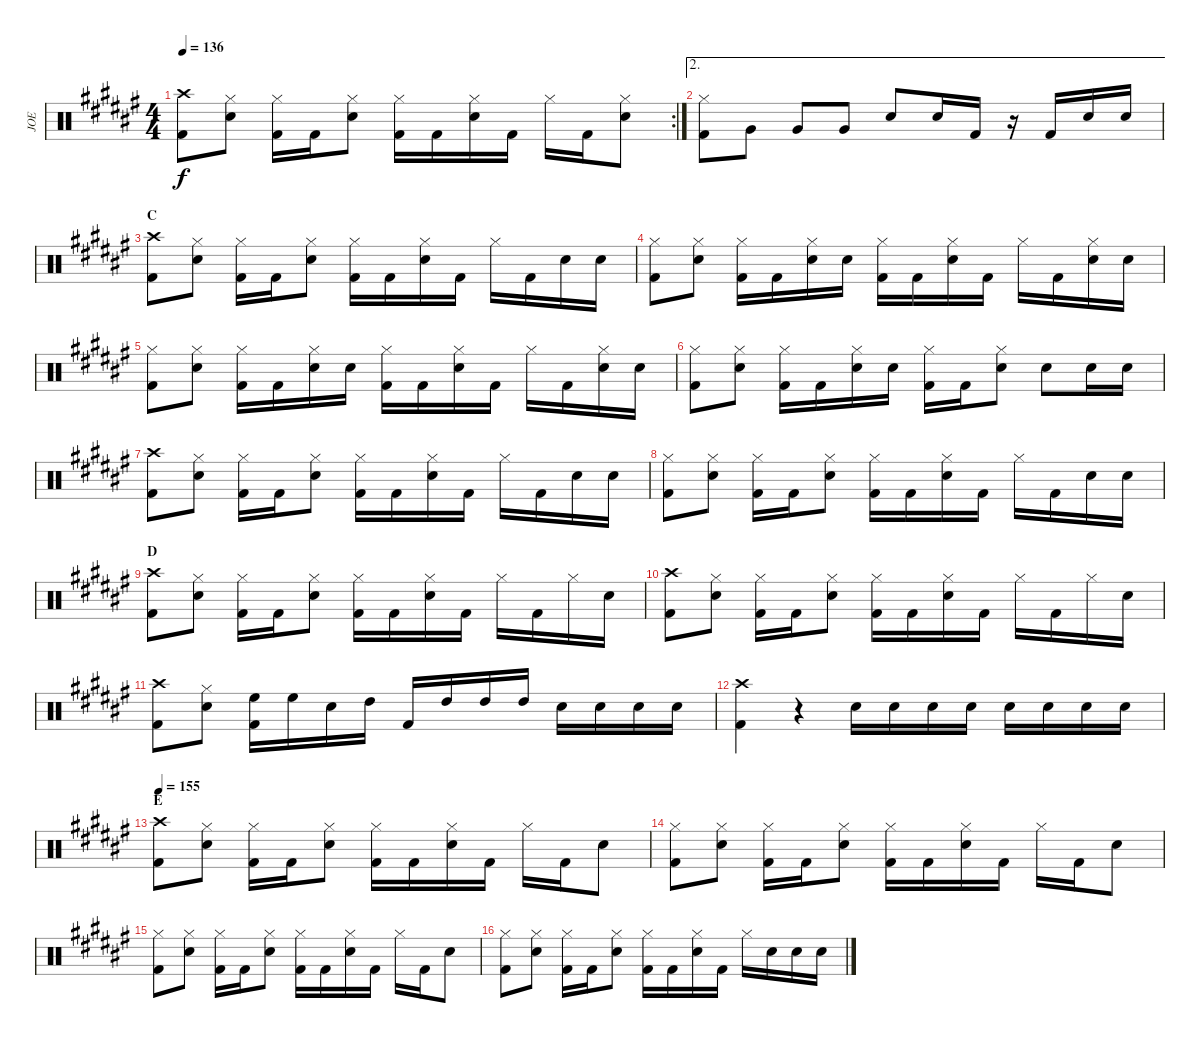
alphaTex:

\track ("JOE" "JOE") {instrument percussion}
\staff {score}
\articulation defaults
\rc 2
\ts (4 4)
\tempo 136
\clef neutral
\ks f#
("Crash high (hit)" "Kick (hit) 2").8{dy f} ("Hi-Hat (closed)" "Snare (hit) 2").8 ("Hi-Hat (closed)" "Kick (hit) 2").16 "Kick (hit) 2".16 ("Hi-Hat (closed)" "Snare (hit) 2").8 ("Hi-Hat (closed)" "Kick (hit) 2").16 "Kick (hit) 2".16 ("Hi-Hat (closed)" "Snare (hit) 2").16 "Kick (hit) 2".16 "Hi-Hat (closed)".16 "Kick (hit) 2".16 ("Hi-Hat (closed)" "Snare (hit) 2").8 |
\ae 2
("Hi-Hat (closed)" "Kick (hit) 2").8 "Very Low Tom (hit)".8 "Very Low Tom (hit)".8 "Very Low Tom (hit)".8 "Snare (hit) 2".8 "Snare (hit) 2".16 "Kick (hit) 2".16 r.16 "Kick (hit) 2".16 "Snare (hit) 2".16 "Snare (hit) 2".16 |
\section ("" "C")
("Crash high (hit)" "Kick (hit) 2").8 ("Hi-Hat (closed)" "Snare (hit) 2").8 ("Hi-Hat (closed)" "Kick (hit) 2").16 "Kick (hit) 2".16 ("Hi-Hat (closed)" "Snare (hit) 2").8 ("Hi-Hat (closed)" "Kick (hit) 2").16 "Kick (hit) 2".16 ("Hi-Hat (closed)" "Snare (hit) 2").16 "Kick (hit) 2".16 "Hi-Hat (closed)".16 "Kick (hit) 2".16 "Snare (hit) 2".16 "Snare (hit) 2".16 |
("Hi-Hat (closed)" "Kick (hit) 2").8 ("Hi-Hat (closed)" "Snare (hit) 2").8 ("Hi-Hat (closed)" "Kick (hit) 2").16 "Kick (hit) 2".16 ("Hi-Hat (closed)" "Snare (hit) 2").16 "Snare (hit) 2".16 ("Hi-Hat (closed)" "Kick (hit) 2").16 "Kick (hit) 2".16 ("Hi-Hat (closed)" "Snare (hit) 2").16 "Kick (hit) 2".16 "Hi-Hat (closed)".16 "Kick (hit) 2".16 ("Hi-Hat (closed)" "Snare (hit) 2").16 "Snare (hit) 2".16 |
("Hi-Hat (closed)" "Kick (hit) 2").8 ("Hi-Hat (closed)" "Snare (hit) 2").8 ("Hi-Hat (closed)" "Kick (hit) 2").16 "Kick (hit) 2".16 ("Hi-Hat (closed)" "Snare (hit) 2").16 "Snare (hit) 2".16 ("Hi-Hat (closed)" "Kick (hit) 2").16 "Kick (hit) 2".16 ("Hi-Hat (closed)" "Snare (hit) 2").16 "Kick (hit) 2".16 "Hi-Hat (closed)".16 "Kick (hit) 2".16 ("Hi-Hat (closed)" "Snare (hit) 2").16 "Snare (hit) 2".16 |
("Hi-Hat (closed)" "Kick (hit) 2").8 ("Hi-Hat (closed)" "Snare (hit) 2").8 ("Hi-Hat (closed)" "Kick (hit) 2").16 "Kick (hit) 2".16 ("Hi-Hat (closed)" "Snare (hit) 2").16 "Snare (hit) 2".16 ("Hi-Hat (closed)" "Kick (hit) 2").16 "Kick (hit) 2".16 ("Hi-Hat (closed)" "Snare (hit) 2").8 "Snare (hit) 2".8 "Snare (hit) 2".16 "Snare (hit) 2".16 |
("Crash high (hit)" "Kick (hit) 2").8 ("Hi-Hat (closed)" "Snare (hit) 2").8 ("Hi-Hat (closed)" "Kick (hit) 2").16 "Kick (hit) 2".16 ("Hi-Hat (closed)" "Snare (hit) 2").8 ("Hi-Hat (closed)" "Kick (hit) 2").16 "Kick (hit) 2".16 ("Hi-Hat (closed)" "Snare (hit) 2").16 "Kick (hit) 2".16 "Hi-Hat (closed)".16 "Kick (hit) 2".16 "Snare (hit) 2".16 "Snare (hit) 2".16 |
("Hi-Hat (closed)" "Kick (hit) 2").8 ("Hi-Hat (closed)" "Snare (hit) 2").8 ("Hi-Hat (closed)" "Kick (hit) 2").16 "Kick (hit) 2".16 ("Hi-Hat (closed)" "Snare (hit) 2").8 ("Hi-Hat (closed)" "Kick (hit) 2").16 "Kick (hit) 2".16 ("Hi-Hat (closed)" "Snare (hit) 2").16 "Kick (hit) 2".16 "Hi-Hat (closed)".16 "Kick (hit) 2".16 "Snare (hit) 2".16 "Snare (hit) 2".16 |
\section ("" "D")
("Crash high (hit)" "Kick (hit) 2").8 ("Hi-Hat (closed)" "Snare (hit) 2").8 ("Hi-Hat (closed)" "Kick (hit) 2").16 "Kick (hit) 2".16 ("Hi-Hat (closed)" "Snare (hit) 2").8 ("Hi-Hat (closed)" "Kick (hit) 2").16 "Kick (hit) 2".16 ("Hi-Hat (closed)" "Snare (hit) 2").16 "Kick (hit) 2".16 "Hi-Hat (closed)".16 "Kick (hit) 2".16 "Hi-Hat (closed)".16 "Snare (hit) 2".16 |
("Crash high (hit)" "Kick (hit) 2").8 ("Hi-Hat (closed)" "Snare (hit) 2").8 ("Hi-Hat (closed)" "Kick (hit) 2").16 "Kick (hit) 2".16 ("Hi-Hat (closed)" "Snare (hit) 2").8 ("Hi-Hat (closed)" "Kick (hit) 2").16 "Kick (hit) 2".16 ("Hi-Hat (closed)" "Snare (hit) 2").16 "Kick (hit) 2".16 "Hi-Hat (closed)".16 "Kick (hit) 2".16 "Hi-Hat (closed)".16 "Snare (hit) 2".16 |
("Crash high (hit)" "Kick (hit) 2").8 ("Hi-Hat (closed)" "Snare (hit) 2").8 ("High Floor Tom (hit)" "Kick (hit) 2").16 "High Floor Tom (hit)".16 "Snare (hit) 2".16 "High Tom (hit)".16 "Kick (hit) 2".16 "High Tom (hit)".16 "High Tom (hit)".16 "High Tom (hit)".16 "Snare (hit) 2".16 "Snare (hit) 2".16 "Snare (hit) 2".16 "Snare (hit) 2".16 |
("Crash high (hit)" "Kick (hit) 2").4 r.4 "Snare (hit) 2".16 "Snare (hit) 2".16 "Snare (hit) 2".16 "Snare (hit) 2".16 "Snare (hit) 2".16 "Snare (hit) 2".16 "Snare (hit) 2".16 "Snare (hit) 2".16 |
\section ("" "E")
\tempo 155
("Crash high (hit)" "Kick (hit) 2").8 ("Hi-Hat (closed)" "Snare (hit) 2").8 ("Hi-Hat (closed)" "Kick (hit) 2").16 "Kick (hit) 2".16 ("Hi-Hat (closed)" "Snare (hit) 2").8 ("Hi-Hat (closed)" "Kick (hit) 2").16 "Kick (hit) 2".16 ("Hi-Hat (closed)" "Snare (hit) 2").16 "Kick (hit) 2".16 "Hi-Hat (closed)".16 "Kick (hit) 2".16 "Snare (hit) 2".8 |
("Hi-Hat (closed)" "Kick (hit) 2").8 ("Hi-Hat (closed)" "Snare (hit) 2").8 ("Hi-Hat (closed)" "Kick (hit) 2").16 "Kick (hit) 2".16 ("Hi-Hat (closed)" "Snare (hit) 2").8 ("Hi-Hat (closed)" "Kick (hit) 2").16 "Kick (hit) 2".16 ("Hi-Hat (closed)" "Snare (hit) 2").16 "Kick (hit) 2".16 "Hi-Hat (closed)".16 "Kick (hit) 2".16 "Snare (hit) 2".8 |
("Hi-Hat (closed)" "Kick (hit) 2").8 ("Hi-Hat (closed)" "Snare (hit) 2").8 ("Hi-Hat (closed)" "Kick (hit) 2").16 "Kick (hit) 2".16 ("Hi-Hat (closed)" "Snare (hit) 2").8 ("Hi-Hat (closed)" "Kick (hit) 2").16 "Kick (hit) 2".16 ("Hi-Hat (closed)" "Snare (hit) 2").16 "Kick (hit) 2".16 "Hi-Hat (closed)".16 "Kick (hit) 2".16 "Snare (hit) 2".8 |
("Hi-Hat (closed)" "Kick (hit) 2").8 ("Hi-Hat (closed)" "Snare (hit) 2").8 ("Hi-Hat (closed)" "Kick (hit) 2").16 "Kick (hit) 2".16 ("Hi-Hat (closed)" "Snare (hit) 2").8 ("Hi-Hat (closed)" "Kick (hit) 2").16 "Kick (hit) 2".16 ("Hi-Hat (closed)" "Snare (hit) 2").16 "Kick (hit) 2".16 "Hi-Hat (closed)".16 "Snare (hit) 2".16 "Snare (hit) 2".16 "Snare (hit) 2".16
